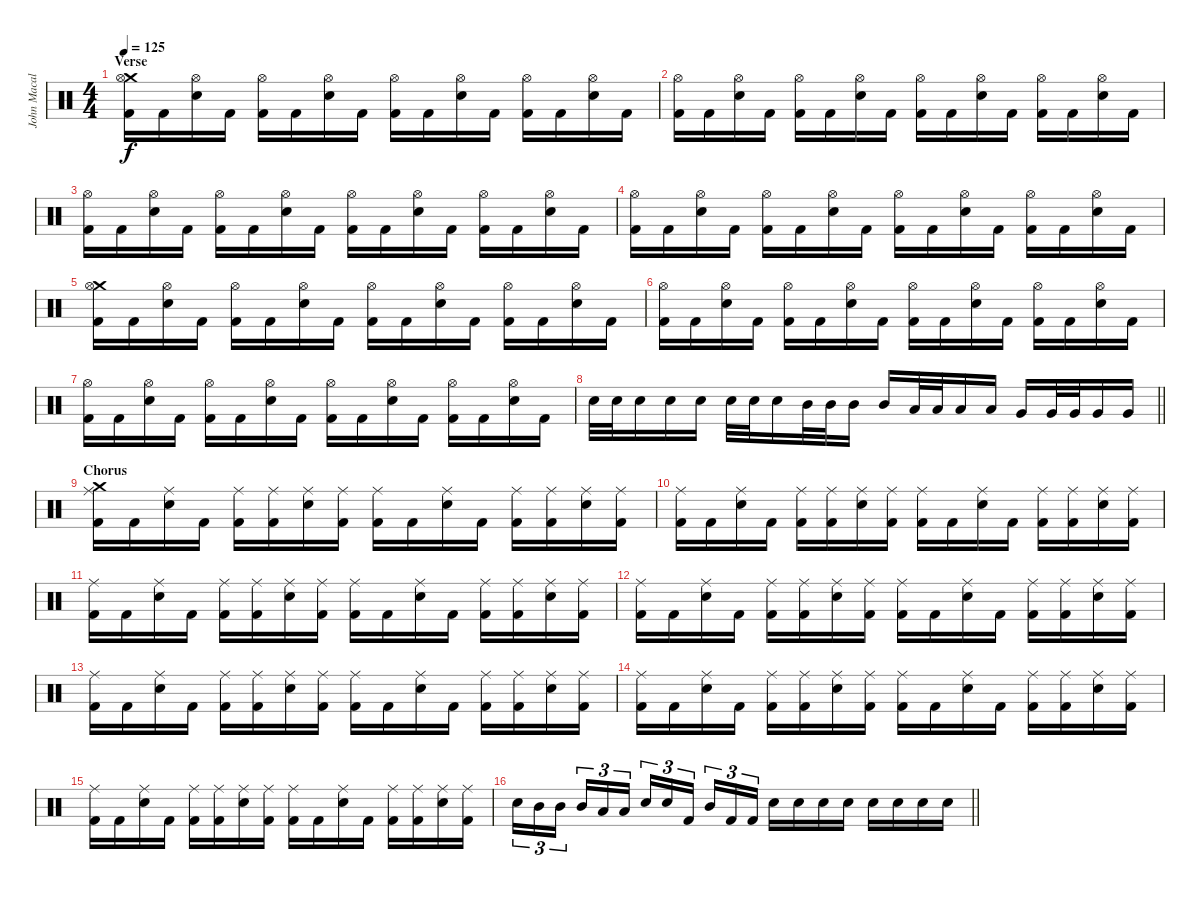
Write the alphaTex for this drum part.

\track ("John Macaluso " "John Macal") {instrument percussion}
\staff {score}
\articulation defaults
\ts (4 4)
\section ("" "Verse")
\tempo 125
\clef neutral
\ks c
("Crash medium (hit)" "Hi-Hat (open)" "Kick (hit) 2").16{dy f} "Kick (hit) 2".16 ("Hi-Hat (open)" "Snare (hit) 2").16 "Kick (hit) 2".16 ("Hi-Hat (open)" "Kick (hit) 2").16 "Kick (hit) 2".16 ("Hi-Hat (open)" "Snare (hit) 2").16 "Kick (hit) 2".16 ("Hi-Hat (open)" "Kick (hit) 2").16 "Kick (hit) 2".16 ("Hi-Hat (open)" "Snare (hit) 2").16 "Kick (hit) 2".16 ("Hi-Hat (open)" "Kick (hit) 2").16 "Kick (hit) 2".16 ("Hi-Hat (open)" "Snare (hit) 2").16 "Kick (hit) 2".16 |
("Hi-Hat (open)" "Kick (hit) 2").16 "Kick (hit) 2".16 ("Hi-Hat (open)" "Snare (hit) 2").16 "Kick (hit) 2".16 ("Hi-Hat (open)" "Kick (hit) 2").16 "Kick (hit) 2".16 ("Hi-Hat (open)" "Snare (hit) 2").16 "Kick (hit) 2".16 ("Hi-Hat (open)" "Kick (hit) 2").16 "Kick (hit) 2".16 ("Hi-Hat (open)" "Snare (hit) 2").16 "Kick (hit) 2".16 ("Hi-Hat (open)" "Kick (hit) 2").16 "Kick (hit) 2".16 ("Hi-Hat (open)" "Snare (hit) 2").16 "Kick (hit) 2".16 |
("Hi-Hat (open)" "Kick (hit) 2").16 "Kick (hit) 2".16 ("Hi-Hat (open)" "Snare (hit) 2").16 "Kick (hit) 2".16 ("Hi-Hat (open)" "Kick (hit) 2").16 "Kick (hit) 2".16 ("Hi-Hat (open)" "Snare (hit) 2").16 "Kick (hit) 2".16 ("Hi-Hat (open)" "Kick (hit) 2").16 "Kick (hit) 2".16 ("Hi-Hat (open)" "Snare (hit) 2").16 "Kick (hit) 2".16 ("Hi-Hat (open)" "Kick (hit) 2").16 "Kick (hit) 2".16 ("Hi-Hat (open)" "Snare (hit) 2").16 "Kick (hit) 2".16 |
("Hi-Hat (open)" "Kick (hit) 2").16 "Kick (hit) 2".16 ("Hi-Hat (open)" "Snare (hit) 2").16 "Kick (hit) 2".16 ("Hi-Hat (open)" "Kick (hit) 2").16 "Kick (hit) 2".16 ("Hi-Hat (open)" "Snare (hit) 2").16 "Kick (hit) 2".16 ("Hi-Hat (open)" "Kick (hit) 2").16 "Kick (hit) 2".16 ("Hi-Hat (open)" "Snare (hit) 2").16 "Kick (hit) 2".16 ("Hi-Hat (open)" "Kick (hit) 2").16 "Kick (hit) 2".16 ("Hi-Hat (open)" "Snare (hit) 2").16 "Kick (hit) 2".16 |
("Crash medium (hit)" "Hi-Hat (open)" "Kick (hit) 2").16 "Kick (hit) 2".16 ("Hi-Hat (open)" "Snare (hit) 2").16 "Kick (hit) 2".16 ("Hi-Hat (open)" "Kick (hit) 2").16 "Kick (hit) 2".16 ("Hi-Hat (open)" "Snare (hit) 2").16 "Kick (hit) 2".16 ("Hi-Hat (open)" "Kick (hit) 2").16 "Kick (hit) 2".16 ("Hi-Hat (open)" "Snare (hit) 2").16 "Kick (hit) 2".16 ("Hi-Hat (open)" "Kick (hit) 2").16 "Kick (hit) 2".16 ("Hi-Hat (open)" "Snare (hit) 2").16 "Kick (hit) 2".16 |
("Hi-Hat (open)" "Kick (hit) 2").16 "Kick (hit) 2".16 ("Hi-Hat (open)" "Snare (hit) 2").16 "Kick (hit) 2".16 ("Hi-Hat (open)" "Kick (hit) 2").16 "Kick (hit) 2".16 ("Hi-Hat (open)" "Snare (hit) 2").16 "Kick (hit) 2".16 ("Hi-Hat (open)" "Kick (hit) 2").16 "Kick (hit) 2".16 ("Hi-Hat (open)" "Snare (hit) 2").16 "Kick (hit) 2".16 ("Hi-Hat (open)" "Kick (hit) 2").16 "Kick (hit) 2".16 ("Hi-Hat (open)" "Snare (hit) 2").16 "Kick (hit) 2".16 |
("Hi-Hat (open)" "Kick (hit) 2").16 "Kick (hit) 2".16 ("Hi-Hat (open)" "Snare (hit) 2").16 "Kick (hit) 2".16 ("Hi-Hat (open)" "Kick (hit) 2").16 "Kick (hit) 2".16 ("Hi-Hat (open)" "Snare (hit) 2").16 "Kick (hit) 2".16 ("Hi-Hat (open)" "Kick (hit) 2").16 "Kick (hit) 2".16 ("Hi-Hat (open)" "Snare (hit) 2").16 "Kick (hit) 2".16 ("Hi-Hat (open)" "Kick (hit) 2").16 "Kick (hit) 2".16 ("Hi-Hat (open)" "Snare (hit) 2").16 "Kick (hit) 2".16 |
\barLineRight lightlight "Snare (hit) 2".32 "Snare (hit) 2".32 "Snare (hit) 2".16 "Snare (hit) 2".16 "Snare (hit) 2".16 "Snare (hit) 2".32 "Snare (hit) 2".32 "Snare (hit) 2".16 "Mid Tom (hit)".32 "Mid Tom (hit)".32 "Mid Tom (hit)".16 "Mid Tom (hit)".16 "Low Tom (hit)".32 "Low Tom (hit)".32 "Low Tom (hit)".16 "Low Tom (hit)".16 "Very Low Tom (hit)".16 "Very Low Tom (hit)".32 "Very Low Tom (hit)".32 "Very Low Tom (hit)".16 "Very Low Tom (hit)".16
|
\section ("" "Chorus")
("Crash medium (hit)" "Ride (middle)" "Kick (hit) 2").16 "Kick (hit) 2".16 ("Ride (middle)" "Snare (hit) 2").16 "Kick (hit) 2".16 ("Ride (middle)" "Kick (hit) 2").16 ("Ride (middle)" "Kick (hit) 2").16 ("Ride (middle)" "Snare (hit) 2").16 ("Ride (middle)" "Kick (hit) 2").16 ("Ride (middle)" "Kick (hit) 2").16 "Kick (hit) 2".16 ("Ride (middle)" "Snare (hit) 2").16 "Kick (hit) 2".16 ("Ride (middle)" "Kick (hit) 2").16 ("Ride (middle)" "Kick (hit) 2").16 ("Ride (middle)" "Snare (hit) 2").16 ("Ride (middle)" "Kick (hit) 2").16 |
("Ride (middle)" "Kick (hit) 2").16 "Kick (hit) 2".16 ("Ride (middle)" "Snare (hit) 2").16 "Kick (hit) 2".16 ("Ride (middle)" "Kick (hit) 2").16 ("Ride (middle)" "Kick (hit) 2").16 ("Ride (middle)" "Snare (hit) 2").16 ("Ride (middle)" "Kick (hit) 2").16 ("Ride (middle)" "Kick (hit) 2").16 "Kick (hit) 2".16 ("Ride (middle)" "Snare (hit) 2").16 "Kick (hit) 2".16 ("Ride (middle)" "Kick (hit) 2").16 ("Ride (middle)" "Kick (hit) 2").16 ("Ride (middle)" "Snare (hit) 2").16 ("Ride (middle)" "Kick (hit) 2").16 |
("Ride (middle)" "Kick (hit) 2").16 "Kick (hit) 2".16 ("Ride (middle)" "Snare (hit) 2").16 "Kick (hit) 2".16 ("Ride (middle)" "Kick (hit) 2").16 ("Ride (middle)" "Kick (hit) 2").16 ("Ride (middle)" "Snare (hit) 2").16 ("Ride (middle)" "Kick (hit) 2").16 ("Ride (middle)" "Kick (hit) 2").16 "Kick (hit) 2".16 ("Ride (middle)" "Snare (hit) 2").16 "Kick (hit) 2".16 ("Ride (middle)" "Kick (hit) 2").16 ("Ride (middle)" "Kick (hit) 2").16 ("Ride (middle)" "Snare (hit) 2").16 ("Ride (middle)" "Kick (hit) 2").16 |
("Ride (middle)" "Kick (hit) 2").16 "Kick (hit) 2".16 ("Ride (middle)" "Snare (hit) 2").16 "Kick (hit) 2".16 ("Ride (middle)" "Kick (hit) 2").16 ("Ride (middle)" "Kick (hit) 2").16 ("Ride (middle)" "Snare (hit) 2").16 ("Ride (middle)" "Kick (hit) 2").16 ("Ride (middle)" "Kick (hit) 2").16 "Kick (hit) 2".16 ("Ride (middle)" "Snare (hit) 2").16 "Kick (hit) 2".16 ("Ride (middle)" "Kick (hit) 2").16 ("Ride (middle)" "Kick (hit) 2").16 ("Ride (middle)" "Snare (hit) 2").16 ("Ride (middle)" "Kick (hit) 2").16 |
("Ride (middle)" "Kick (hit) 2").16 "Kick (hit) 2".16 ("Ride (middle)" "Snare (hit) 2").16 "Kick (hit) 2".16 ("Ride (middle)" "Kick (hit) 2").16 ("Ride (middle)" "Kick (hit) 2").16 ("Ride (middle)" "Snare (hit) 2").16 ("Ride (middle)" "Kick (hit) 2").16 ("Ride (middle)" "Kick (hit) 2").16 "Kick (hit) 2".16 ("Ride (middle)" "Snare (hit) 2").16 "Kick (hit) 2".16 ("Ride (middle)" "Kick (hit) 2").16 ("Ride (middle)" "Kick (hit) 2").16 ("Ride (middle)" "Snare (hit) 2").16 ("Ride (middle)" "Kick (hit) 2").16 |
("Ride (middle)" "Kick (hit) 2").16 "Kick (hit) 2".16 ("Ride (middle)" "Snare (hit) 2").16 "Kick (hit) 2".16 ("Ride (middle)" "Kick (hit) 2").16 ("Ride (middle)" "Kick (hit) 2").16 ("Ride (middle)" "Snare (hit) 2").16 ("Ride (middle)" "Kick (hit) 2").16 ("Ride (middle)" "Kick (hit) 2").16 "Kick (hit) 2".16 ("Ride (middle)" "Snare (hit) 2").16 "Kick (hit) 2".16 ("Ride (middle)" "Kick (hit) 2").16 ("Ride (middle)" "Kick (hit) 2").16 ("Ride (middle)" "Snare (hit) 2").16 ("Ride (middle)" "Kick (hit) 2").16 |
("Ride (middle)" "Kick (hit) 2").16 "Kick (hit) 2".16 ("Ride (middle)" "Snare (hit) 2").16 "Kick (hit) 2".16 ("Ride (middle)" "Kick (hit) 2").16 ("Ride (middle)" "Kick (hit) 2").16 ("Ride (middle)" "Snare (hit) 2").16 ("Ride (middle)" "Kick (hit) 2").16 ("Ride (middle)" "Kick (hit) 2").16 "Kick (hit) 2".16 ("Ride (middle)" "Snare (hit) 2").16 "Kick (hit) 2".16 ("Ride (middle)" "Kick (hit) 2").16 ("Ride (middle)" "Kick (hit) 2").16 ("Ride (middle)" "Snare (hit) 2").16 ("Ride (middle)" "Kick (hit) 2").16 |
\barLineRight lightlight "Snare (hit) 2".16{tu (3 2)} "Mid Tom (hit)".16{tu (3 2)} "Mid Tom (hit)".16{tu (3 2) beam splitsecondary} "Mid Tom (hit)".16{tu (3 2)} "Low Tom (hit)".16{tu (3 2)} "Low Tom (hit)".16{tu (3 2)} "Snare (hit) 2".16{tu (3 2)} "Snare (hit) 2".16{tu (3 2)} "Kick (hit) 2".16{tu (3 2) beam splitsecondary} "Mid Tom (hit)".16{tu (3 2)} "Kick (hit) 2".16{tu (3 2)} "Kick (hit) 2".16{tu (3 2)} "Snare (hit) 2".16 "Snare (hit) 2".16 "Snare (hit) 2".16 "Snare (hit) 2".16 "Snare (hit) 2".16 "Snare (hit) 2".16 "Snare (hit) 2".16 "Snare (hit) 2".16
